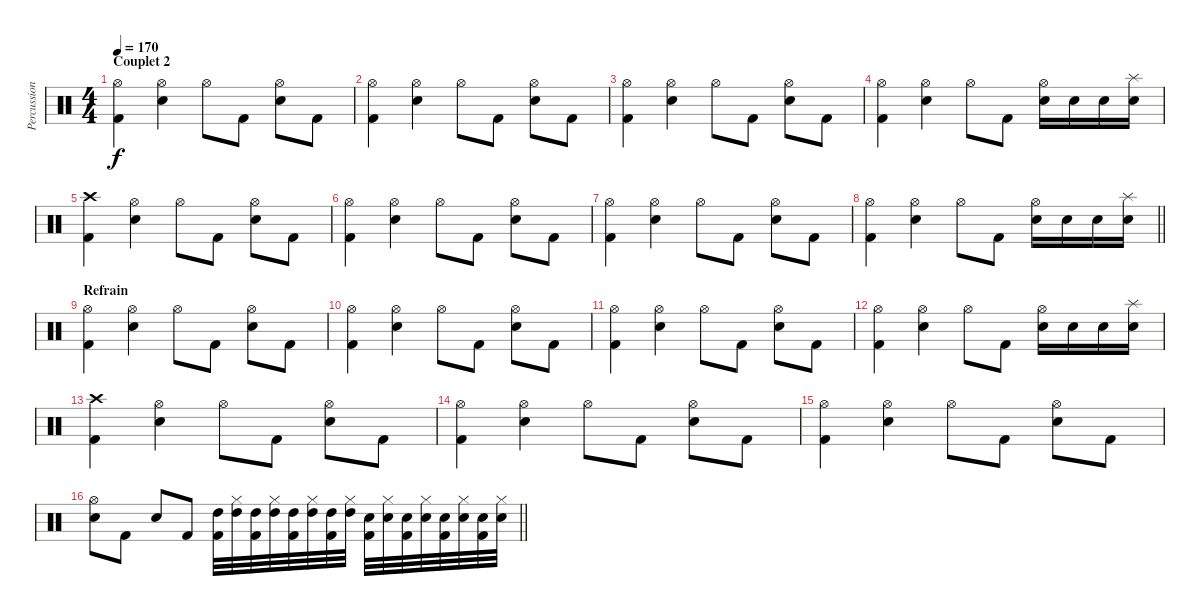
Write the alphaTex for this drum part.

\track ("Percussions" "Percussion") {instrument percussion}
\staff {score}
\articulation defaults
\ts (4 4)
\section ("" "Couplet 2")
\tempo 170
\clef neutral
\ks c
("Hi-Hat (open)" "Kick (hit) 2").4{dy f} ("Hi-Hat (open)" "Snare (hit) 2").4 "Hi-Hat (open)".8 "Kick (hit) 2".8 ("Hi-Hat (open)" "Snare (hit) 2").8 "Kick (hit) 2".8 |
("Hi-Hat (open)" "Kick (hit) 2").4 ("Hi-Hat (open)" "Snare (hit) 2").4 "Hi-Hat (open)".8 "Kick (hit) 2".8 ("Hi-Hat (open)" "Snare (hit) 2").8 "Kick (hit) 2".8 |
("Hi-Hat (open)" "Kick (hit) 2").4 ("Hi-Hat (open)" "Snare (hit) 2").4 "Hi-Hat (open)".8 "Kick (hit) 2".8 ("Hi-Hat (open)" "Snare (hit) 2").8 "Kick (hit) 2".8 |
("Hi-Hat (open)" "Kick (hit) 2").4 ("Hi-Hat (open)" "Snare (hit) 2").4 "Hi-Hat (open)".8 "Kick (hit) 2".8 ("Hi-Hat (open)" "Snare (hit) 2").16 "Snare (hit) 2".16 "Snare (hit) 2".16 ("Splash (hit)" "Snare (hit) 2").16 |
("Crash high (hit)" "Kick (hit) 2").4 ("Hi-Hat (open)" "Snare (hit) 2").4 "Hi-Hat (open)".8 "Kick (hit) 2".8 ("Hi-Hat (open)" "Snare (hit) 2").8 "Kick (hit) 2".8 |
("Hi-Hat (open)" "Kick (hit) 2").4 ("Hi-Hat (open)" "Snare (hit) 2").4 "Hi-Hat (open)".8 "Kick (hit) 2".8 ("Hi-Hat (open)" "Snare (hit) 2").8 "Kick (hit) 2".8 |
("Hi-Hat (open)" "Kick (hit) 2").4 ("Hi-Hat (open)" "Snare (hit) 2").4 "Hi-Hat (open)".8 "Kick (hit) 2".8 ("Hi-Hat (open)" "Snare (hit) 2").8 "Kick (hit) 2".8 |
\barLineRight lightlight
("Hi-Hat (open)" "Kick (hit) 2").4 ("Hi-Hat (open)" "Snare (hit) 2").4 "Hi-Hat (open)".8 "Kick (hit) 2".8 ("Hi-Hat (open)" "Snare (hit) 2").16 "Snare (hit) 2".16 "Snare (hit) 2".16 ("Splash (hit)" "Snare (hit) 2").16 |
\section ("" "Refrain")
("Hi-Hat (open)" "Kick (hit) 2").4 ("Hi-Hat (open)" "Snare (hit) 2").4 "Hi-Hat (open)".8 "Kick (hit) 2".8 ("Hi-Hat (open)" "Snare (hit) 2").8 "Kick (hit) 2".8 |
("Hi-Hat (open)" "Kick (hit) 2").4 ("Hi-Hat (open)" "Snare (hit) 2").4 "Hi-Hat (open)".8 "Kick (hit) 2".8 ("Hi-Hat (open)" "Snare (hit) 2").8 "Kick (hit) 2".8 |
("Hi-Hat (open)" "Kick (hit) 2").4 ("Hi-Hat (open)" "Snare (hit) 2").4 "Hi-Hat (open)".8 "Kick (hit) 2".8 ("Hi-Hat (open)" "Snare (hit) 2").8 "Kick (hit) 2".8 |
("Hi-Hat (open)" "Kick (hit) 2").4 ("Hi-Hat (open)" "Snare (hit) 2").4 "Hi-Hat (open)".8 "Kick (hit) 2".8 ("Hi-Hat (open)" "Snare (hit) 2").16 "Snare (hit) 2".16 "Snare (hit) 2".16 ("Splash (hit)" "Snare (hit) 2").16 |
("Crash high (hit)" "Kick (hit) 2").4 ("Hi-Hat (open)" "Snare (hit) 2").4 "Hi-Hat (open)".8 "Kick (hit) 2".8 ("Hi-Hat (open)" "Snare (hit) 2").8 "Kick (hit) 2".8 |
("Hi-Hat (open)" "Kick (hit) 2").4 ("Hi-Hat (open)" "Snare (hit) 2").4 "Hi-Hat (open)".8 "Kick (hit) 2".8 ("Hi-Hat (open)" "Snare (hit) 2").8 "Kick (hit) 2".8 |
("Hi-Hat (open)" "Kick (hit) 2").4 ("Hi-Hat (open)" "Snare (hit) 2").4 "Hi-Hat (open)".8 "Kick (hit) 2".8 ("Hi-Hat (open)" "Snare (hit) 2").8 "Kick (hit) 2".8 |
\barLineRight lightlight
("Hi-Hat (open)" "Snare (hit) 2").8 "Kick (hit) 2".8 "Snare (hit) 2".8 "Kick (hit) 2".8 ("High Tom (hit)" "Kick (hit) 2").32 ("Hi-Hat (closed)" "High Tom (hit)").32 ("High Tom (hit)" "Kick (hit) 2").32 ("Hi-Hat (closed)" "High Tom (hit)").32 ("High Tom (hit)" "Kick (hit) 2").32 ("Hi-Hat (closed)" "High Tom (hit)").32 ("High Tom (hit)" "Kick (hit) 2").32 ("Hi-Hat (closed)" "High Tom (hit)").32 ("Snare (hit) 2" "Kick (hit) 2").32 ("Hi-Hat (closed)" "Snare (hit) 2").32 ("Snare (hit) 2" "Kick (hit) 2").32 ("Hi-Hat (closed)" "Snare (hit) 2").32 ("Snare (hit) 2" "Kick (hit) 2").32 ("Hi-Hat (closed)" "Snare (hit) 2").32 ("Snare (hit) 2" "Kick (hit) 2").32 ("Hi-Hat (closed)" "Snare (hit) 2").32
